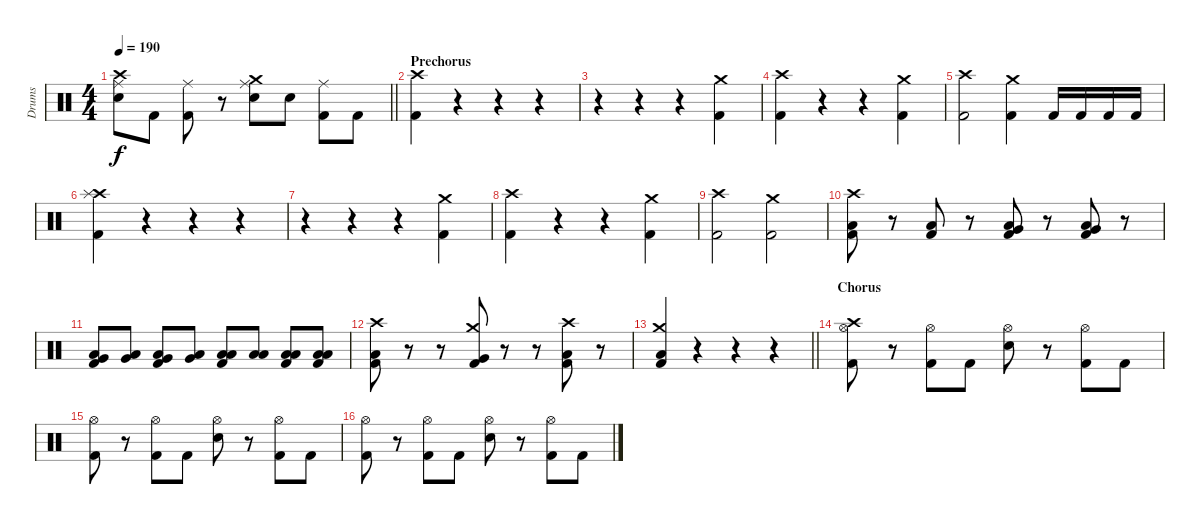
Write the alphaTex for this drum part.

\track ("Drums" "Drums") {instrument percussion}
\staff {score}
\articulation defaults
\ts (4 4)
\tempo 190
\clef neutral
\barLineRight lightlight
\ks c
("Crash high (hit)" "Ride (middle)" "Snare (hit) 2").8{dy f} "Kick (hit) 2".8 ("Ride (middle)" "Kick (hit) 2").8 r.8 ("Crash medium (hit)" "Ride (middle)" "Snare (hit) 2").8 "Snare (hit) 2".8 ("Ride (middle)" "Kick (hit) 2").8 "Kick (hit) 2".8 |
\section ("" "Prechorus")
("Crash high (hit)" "Kick (hit) 2").4 r.4 r.4 r.4 |
r.4 r.4 r.4 ("Crash medium (hit)" "Kick (hit) 2").4 |
("Crash high (hit)" "Kick (hit) 2").4 r.4 r.4 ("Crash medium (hit)" "Kick (hit) 2").4 |
("Crash high (hit)" "Kick (hit) 2").2 ("Crash medium (hit)" "Kick (hit) 2").4 "Kick (hit) 2".16 "Kick (hit) 2".16 "Kick (hit) 2".16 "Kick (hit) 2".16 |
("Crash high (hit)" "Splash (hit)" "Kick (hit) 2").4 r.4 r.4 r.4 |
r.4 r.4 r.4 ("Crash medium (hit)" "Kick (hit) 2").4 |
("Crash high (hit)" "Kick (hit) 2").4 r.4 r.4 ("Crash medium (hit)" "Kick (hit) 2").4 |
("Crash high (hit)" "Kick (hit) 2").2 ("Crash medium (hit)" "Kick (hit) 2").2 |
("Crash high (hit)" "Low Floor Tom (hit)" "Kick (hit) 2").8 r.8 ("Low Floor Tom (hit)" "Kick (hit) 2").8 r.8 ("Very Low Tom (hit)" "Low Floor Tom (hit)" "Kick (hit) 2").8 r.8 ("Very Low Tom (hit)" "Low Floor Tom (hit)" "Kick (hit) 2").8 r.8 |
("Very Low Tom (hit)" "Low Floor Tom (hit)" "Kick (hit) 2").8 ("Very Low Tom (hit)" "Low Floor Tom (hit)").8 ("Very Low Tom (hit)" "Low Floor Tom (hit)" "Kick (hit) 2").8 ("Very Low Tom (hit)" "Low Floor Tom (hit)").8 ("Low Tom (hit)" "Low Floor Tom (hit)" "Kick (hit) 2").8 ("Low Tom (hit)" "Low Floor Tom (hit)").8 ("Low Tom (hit)" "Low Floor Tom (hit)" "Kick (hit) 2").8 ("Low Tom (hit)" "Low Floor Tom (hit)" "Kick (hit) 2").8 |
("Crash high (hit)" "Low Tom (hit)" "Kick (hit) 2").8 r.8 r.8 ("Crash medium (hit)" "Very Low Tom (hit)" "Kick (hit) 2").8 r.8 r.8 ("Crash high (hit)" "Low Floor Tom (hit)" "Kick (hit) 2").8 r.8 |
\barLineRight lightlight
("Crash medium (hit)" "Low Floor Tom (hit)" "Kick (hit) 2").4 r.4 r.4 r.4 |
\section ("" "Chorus")
("Crash high (hit)" "Hi-Hat (open)" "Kick (hit) 2").8 r.8 ("Hi-Hat (open)" "Kick (hit) 2").8 "Kick (hit) 2".8 ("Hi-Hat (open)" "Snare (hit) 2").8 r.8 ("Hi-Hat (open)" "Kick (hit) 2").8 "Kick (hit) 2".8 |
("Hi-Hat (open)" "Kick (hit) 2").8 r.8 ("Hi-Hat (open)" "Kick (hit) 2").8 "Kick (hit) 2".8 ("Hi-Hat (open)" "Snare (hit) 2").8 r.8 ("Hi-Hat (open)" "Kick (hit) 2").8 "Kick (hit) 2".8 |
("Hi-Hat (open)" "Kick (hit) 2").8 r.8 ("Hi-Hat (open)" "Kick (hit) 2").8 "Kick (hit) 2".8 ("Hi-Hat (open)" "Snare (hit) 2").8 r.8 ("Hi-Hat (open)" "Kick (hit) 2").8 "Kick (hit) 2".8
